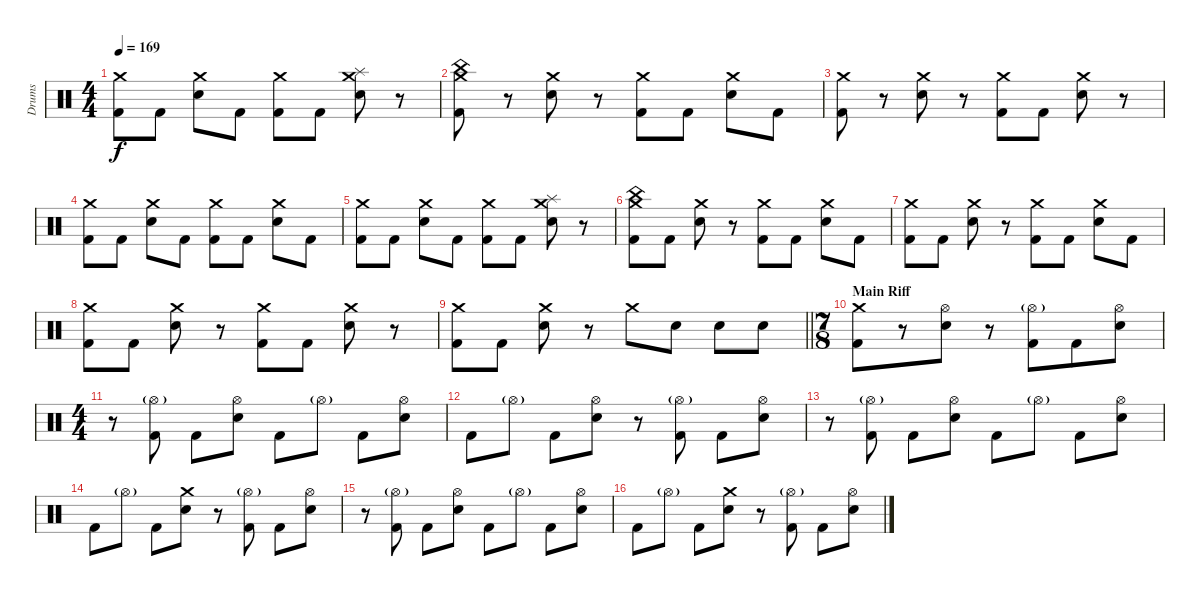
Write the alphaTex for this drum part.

\track ("Drums" "Drums") {instrument percussion}
\staff {score}
\articulation defaults
\ts (4 4)
\tempo 169
\clef neutral
\ks c
("Crash medium (hit)" "Kick (hit) 2").8{dy f} "Kick (hit) 2".8 ("Crash medium (hit)" "Electric Snare (hit)").8 "Kick (hit) 2".8 ("Crash medium (hit)" "Kick (hit) 2").8 "Kick (hit) 2".8 ("Crash medium (hit)" "Splash (hit)" "Electric Snare (hit)").8 r.8 |
("Crash medium (hit)" "China (hit)" "Kick (hit) 2").8 r.8 ("Crash medium (hit)" "Electric Snare (hit)").8 r.8 ("Crash medium (hit)" "Kick (hit) 2").8 "Kick (hit) 2".8 ("Crash medium (hit)" "Electric Snare (hit)").8 "Kick (hit) 2".8 |
("Crash medium (hit)" "Kick (hit) 2").8 r.8 ("Crash medium (hit)" "Electric Snare (hit)").8 r.8 ("Crash medium (hit)" "Kick (hit) 2").8 "Kick (hit) 2".8 ("Crash medium (hit)" "Electric Snare (hit)").8 r.8 |
("Crash medium (hit)" "Kick (hit) 2").8 "Kick (hit) 2".8 ("Crash medium (hit)" "Electric Snare (hit)").8 "Kick (hit) 2".8 ("Crash medium (hit)" "Kick (hit) 2").8 "Kick (hit) 2".8 ("Crash medium (hit)" "Electric Snare (hit)").8 "Kick (hit) 2".8 |
("Crash medium (hit)" "Kick (hit) 2").8 "Kick (hit) 2".8 ("Crash medium (hit)" "Electric Snare (hit)").8 "Kick (hit) 2".8 ("Crash medium (hit)" "Kick (hit) 2").8 "Kick (hit) 2".8 ("Crash medium (hit)" "Splash (hit)" "Electric Snare (hit)").8 r.8 |
("Crash medium (hit)" "China (hit)" "Kick (hit) 2").8 "Kick (hit) 2".8 ("Crash medium (hit)" "Electric Snare (hit)").8 r.8 ("Crash medium (hit)" "Kick (hit) 2").8 "Kick (hit) 2".8 ("Crash medium (hit)" "Electric Snare (hit)").8 "Kick (hit) 2".8 |
("Crash medium (hit)" "Kick (hit) 2").8 "Kick (hit) 2".8 ("Crash medium (hit)" "Electric Snare (hit)").8 r.8 ("Crash medium (hit)" "Kick (hit) 2").8 "Kick (hit) 2".8 ("Crash medium (hit)" "Electric Snare (hit)").8 "Kick (hit) 2".8 |
("Crash medium (hit)" "Kick (hit) 2").8 "Kick (hit) 2".8 ("Crash medium (hit)" "Electric Snare (hit)").8 r.8 ("Crash medium (hit)" "Kick (hit) 2").8 "Kick (hit) 2".8 ("Crash medium (hit)" "Electric Snare (hit)").8 r.8 |
\barLineRight lightlight
("Crash medium (hit)" "Kick (hit) 2").8 "Kick (hit) 2".8 ("Crash medium (hit)" "Electric Snare (hit)").8 r.8 "Crash medium (hit)".8 "Electric Snare (hit)".8 "Electric Snare (hit)".8 "Electric Snare (hit)".8 |
\ts (7 8)
\section ("" "Main Riff")
("Crash medium (hit)" "Kick (hit) 2").8 r.8 ("Hi-Hat (open)" "Electric Snare (hit)").8 r.8 ("Hi-Hat (open)"{g} "Kick (hit) 2").8 "Kick (hit) 2".8 ("Hi-Hat (open)" "Electric Snare (hit)").8 |
\ts (4 4)
r.8 ("Hi-Hat (open)"{g} "Kick (hit) 2").8 "Kick (hit) 2".8 ("Hi-Hat (open)" "Electric Snare (hit)").8 "Kick (hit) 2".8 "Hi-Hat (open)"{g}.8 "Kick (hit) 2".8 ("Hi-Hat (open)" "Electric Snare (hit)").8 |
"Kick (hit) 2".8 "Hi-Hat (open)"{g}.8 "Kick (hit) 2".8 ("Hi-Hat (open)" "Electric Snare (hit)").8 r.8 ("Hi-Hat (open)"{g} "Kick (hit) 2").8 "Kick (hit) 2".8 ("Hi-Hat (open)" "Electric Snare (hit)").8 |
r.8 ("Hi-Hat (open)"{g} "Kick (hit) 2").8 "Kick (hit) 2".8 ("Hi-Hat (open)" "Electric Snare (hit)").8 "Kick (hit) 2".8 "Hi-Hat (open)"{g}.8 "Kick (hit) 2".8 ("Hi-Hat (open)" "Electric Snare (hit)").8 |
"Kick (hit) 2".8 "Hi-Hat (open)"{g}.8 "Kick (hit) 2".8 ("Crash medium (hit)" "Electric Snare (hit)").8 r.8 ("Hi-Hat (open)"{g} "Kick (hit) 2").8 "Kick (hit) 2".8 ("Hi-Hat (open)" "Electric Snare (hit)").8 |
r.8 ("Hi-Hat (open)"{g} "Kick (hit) 2").8 "Kick (hit) 2".8 ("Hi-Hat (open)" "Electric Snare (hit)").8 "Kick (hit) 2".8 "Hi-Hat (open)"{g}.8 "Kick (hit) 2".8 ("Hi-Hat (open)" "Electric Snare (hit)").8 |
"Kick (hit) 2".8 "Hi-Hat (open)"{g}.8 "Kick (hit) 2".8 ("Crash medium (hit)" "Electric Snare (hit)").8 r.8 ("Hi-Hat (open)"{g} "Kick (hit) 2").8 "Kick (hit) 2".8 ("Hi-Hat (open)" "Electric Snare (hit)").8
